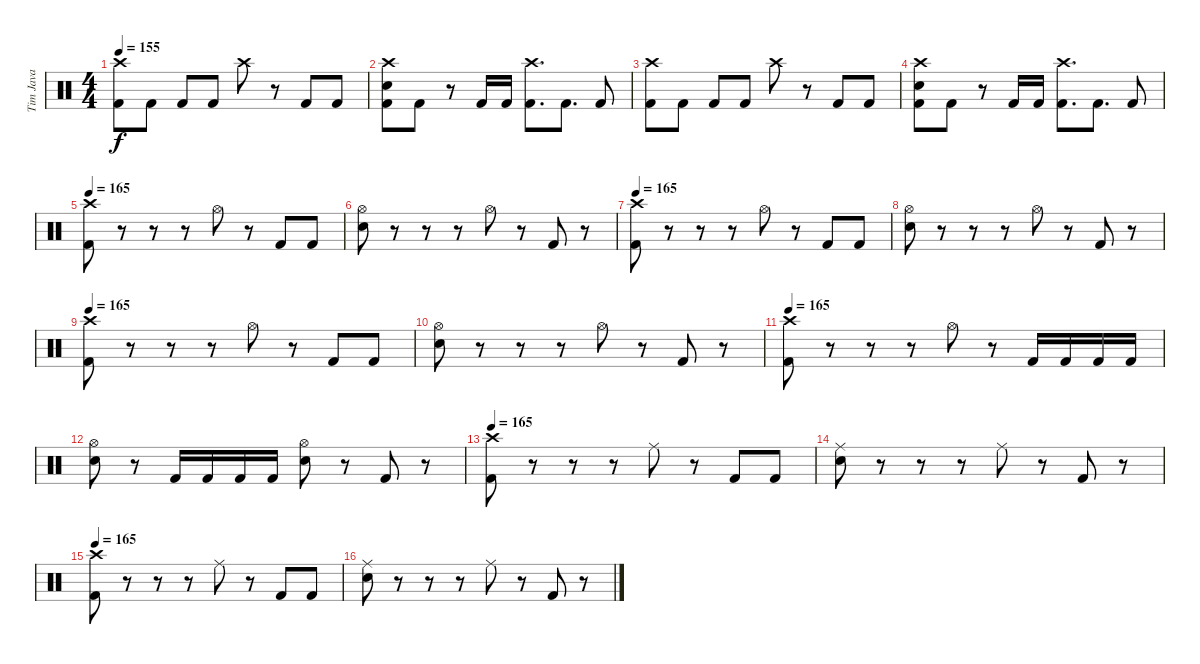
\track ("Tim Java" "Tim Java") {instrument percussion}
\staff {score}
\articulation defaults
\ts (4 4)
\tempo 155
\clef neutral
\ks c
("Crash high (hit)" "Kick (hit) 2").8{dy f} "Kick (hit) 2".8 "Kick (hit) 2".8 "Kick (hit) 2".8 "Crash high (hit)".8 r.8 "Kick (hit) 2".8 "Kick (hit) 2".8 |
("Crash high (hit)" "Electric Snare (hit)" "Kick (hit) 2").8 "Kick (hit) 2".8 r.8 "Kick (hit) 2".16 "Kick (hit) 2".16 ("Crash high (hit)" "Kick (hit) 2").8{d} "Kick (hit) 2".8{d} "Kick (hit) 2".8 |
("Crash high (hit)" "Kick (hit) 2").8 "Kick (hit) 2".8 "Kick (hit) 2".8 "Kick (hit) 2".8 "Crash high (hit)".8 r.8 "Kick (hit) 2".8 "Kick (hit) 2".8 |
("Crash high (hit)" "Electric Snare (hit)" "Kick (hit) 2").8 "Kick (hit) 2".8 r.8 "Kick (hit) 2".16 "Kick (hit) 2".16 ("Crash high (hit)" "Kick (hit) 2").8{d} "Kick (hit) 2".8{d} "Kick (hit) 2".8 |
\tempo 165
("Crash high (hit)" "Kick (hit) 2").8 r.8 r.8 r.8 "Hi-Hat (open)".8 r.8 "Kick (hit) 2".8 "Kick (hit) 2".8 |
("Hi-Hat (open)" "Electric Snare (hit)").8 r.8 r.8 r.8 "Hi-Hat (open)".8 r.8 "Kick (hit) 2".8 r.8 |
\tempo 165
("Crash high (hit)" "Kick (hit) 2").8 r.8 r.8 r.8 "Hi-Hat (open)".8 r.8 "Kick (hit) 2".8 "Kick (hit) 2".8 |
("Hi-Hat (open)" "Electric Snare (hit)").8 r.8 r.8 r.8 "Hi-Hat (open)".8 r.8 "Kick (hit) 2".8 r.8 |
\tempo 165
("Crash high (hit)" "Kick (hit) 2").8 r.8 r.8 r.8 "Hi-Hat (open)".8 r.8 "Kick (hit) 2".8 "Kick (hit) 2".8 |
("Hi-Hat (open)" "Electric Snare (hit)").8 r.8 r.8 r.8 "Hi-Hat (open)".8 r.8 "Kick (hit) 2".8 r.8 |
\tempo 165
("Crash high (hit)" "Kick (hit) 2").8 r.8 r.8 r.8 "Hi-Hat (open)".8 r.8 "Kick (hit) 2".16 "Kick (hit) 2".16 "Kick (hit) 2".16 "Kick (hit) 2".16 |
("Hi-Hat (open)" "Electric Snare (hit)").8 r.8 "Kick (hit) 2".16 "Kick (hit) 2".16 "Kick (hit) 2".16 "Kick (hit) 2".16 ("Hi-Hat (open)" "Electric Snare (hit)").8 r.8 "Kick (hit) 2".8 r.8 |
\tempo 165
("Crash high (hit)" "Kick (hit) 2").8 r.8 r.8 r.8 "Ride (middle)".8 r.8 "Kick (hit) 2".8 "Kick (hit) 2".8 |
("Ride (middle)" "Electric Snare (hit)").8 r.8 r.8 r.8 "Ride (middle)".8 r.8 "Kick (hit) 2".8 r.8 |
\tempo 165
("Crash high (hit)" "Kick (hit) 2").8 r.8 r.8 r.8 "Ride (middle)".8 r.8 "Kick (hit) 2".8 "Kick (hit) 2".8 |
("Ride (middle)" "Electric Snare (hit)").8 r.8 r.8 r.8 "Ride (middle)".8 r.8 "Kick (hit) 2".8 r.8
